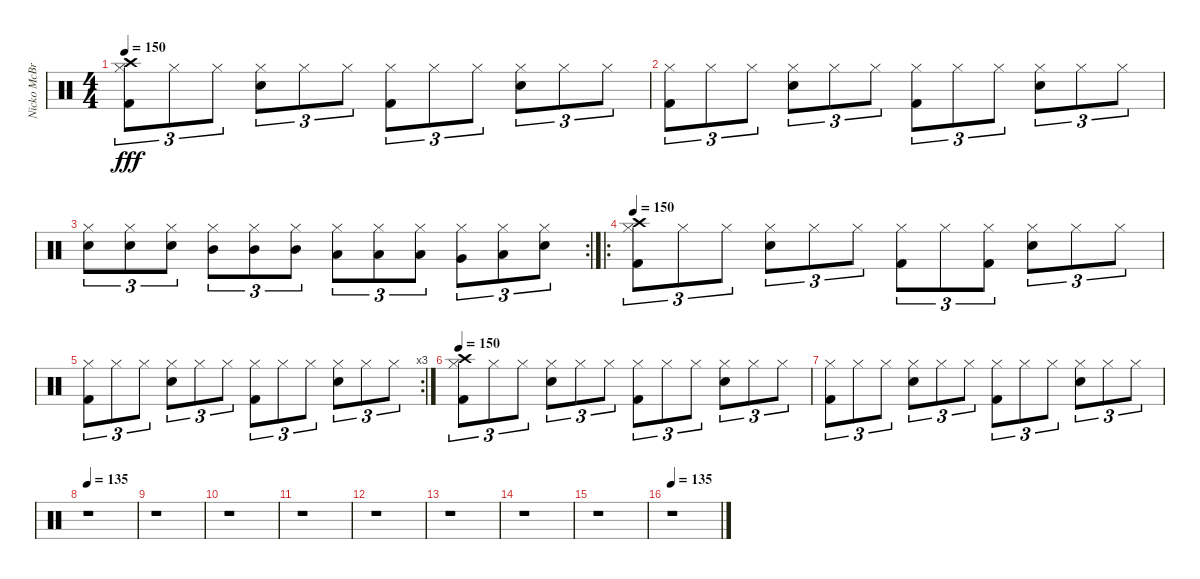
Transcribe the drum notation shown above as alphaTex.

\track ("Nicko McBrain" "Nicko McBr") {instrument percussion}
\staff {score}
\articulation defaults
\ts (4 4)
\tempo 150
\clef neutral
\ks c
("Hi-Hat (closed)" "Kick (hit) 2" "Crash high (hit)").8{tu (3 2) dy fff} "Hi-Hat (closed)".8{tu (3 2)} "Hi-Hat (closed)".8{tu (3 2)} ("Hi-Hat (closed)" "Snare (hit) 2").8{tu (3 2)} "Hi-Hat (closed)".8{tu (3 2)} "Hi-Hat (closed)".8{tu (3 2)} ("Hi-Hat (closed)" "Kick (hit) 2").8{tu (3 2)} "Hi-Hat (closed)".8{tu (3 2)} "Hi-Hat (closed)".8{tu (3 2)} ("Hi-Hat (closed)" "Snare (hit) 2").8{tu (3 2)} "Hi-Hat (closed)".8{tu (3 2)} "Hi-Hat (closed)".8{tu (3 2)} |
("Hi-Hat (closed)" "Kick (hit) 2").8{tu (3 2)} "Hi-Hat (closed)".8{tu (3 2)} "Hi-Hat (closed)".8{tu (3 2)} ("Hi-Hat (closed)" "Snare (hit) 2").8{tu (3 2)} "Hi-Hat (closed)".8{tu (3 2)} "Hi-Hat (closed)".8{tu (3 2)} ("Hi-Hat (closed)" "Kick (hit) 2").8{tu (3 2)} "Hi-Hat (closed)".8{tu (3 2)} "Hi-Hat (closed)".8{tu (3 2)} ("Hi-Hat (closed)" "Snare (hit) 2").8{tu (3 2)} "Hi-Hat (closed)".8{tu (3 2)} "Hi-Hat (closed)".8{tu (3 2)} |
\rc 2
("Snare (hit) 2" "Hi-Hat (closed)").8{tu (3 2)} ("Snare (hit) 2" "Hi-Hat (closed)").8{tu (3 2)} ("Snare (hit) 2" "Hi-Hat (closed)").8{tu (3 2)} ("Mid Tom (hit)" "Hi-Hat (closed)").8{tu (3 2)} ("Mid Tom (hit)" "Hi-Hat (closed)").8{tu (3 2)} ("Mid Tom (hit)" "Hi-Hat (closed)").8{tu (3 2)} ("Low Tom (hit)" "Hi-Hat (closed)").8{tu (3 2)} ("Low Tom (hit)" "Hi-Hat (closed)").8{tu (3 2)} ("Low Tom (hit)" "Hi-Hat (closed)").8{tu (3 2)} ("Very Low Tom (hit)" "Hi-Hat (closed)").8{tu (3 2)} ("Low Floor Tom (hit)" "Hi-Hat (closed)").8{tu (3 2)} ("Electric Snare (hit)" "Hi-Hat (closed)").8{tu (3 2)} |
\ro
\tempo 150
("Hi-Hat (closed)" "Kick (hit) 2" "Crash high (hit)").8{tu (3 2)} "Hi-Hat (closed)".8{tu (3 2)} "Hi-Hat (closed)".8{tu (3 2)} ("Hi-Hat (closed)" "Snare (hit) 2").8{tu (3 2)} "Hi-Hat (closed)".8{tu (3 2)} "Hi-Hat (closed)".8{tu (3 2)} ("Hi-Hat (closed)" "Kick (hit) 2").8{tu (3 2)} "Hi-Hat (closed)".8{tu (3 2)} ("Hi-Hat (closed)" "Kick (hit) 2").8{tu (3 2)} ("Hi-Hat (closed)" "Snare (hit) 2").8{tu (3 2)} "Hi-Hat (closed)".8{tu (3 2)} "Hi-Hat (closed)".8{tu (3 2)} |
\rc 3
("Hi-Hat (closed)" "Kick (hit) 2").8{tu (3 2)} "Hi-Hat (closed)".8{tu (3 2)} "Hi-Hat (closed)".8{tu (3 2)} ("Hi-Hat (closed)" "Snare (hit) 2").8{tu (3 2)} "Hi-Hat (closed)".8{tu (3 2)} "Hi-Hat (closed)".8{tu (3 2)} ("Hi-Hat (closed)" "Kick (hit) 2").8{tu (3 2)} "Hi-Hat (closed)".8{tu (3 2)} "Hi-Hat (closed)".8{tu (3 2)} ("Hi-Hat (closed)" "Snare (hit) 2").8{tu (3 2)} "Hi-Hat (closed)".8{tu (3 2)} "Hi-Hat (closed)".8{tu (3 2)} |
\tempo 150
("Hi-Hat (closed)" "Kick (hit) 2" "Crash high (hit)").8{tu (3 2)} "Hi-Hat (closed)".8{tu (3 2)} "Hi-Hat (closed)".8{tu (3 2)} ("Hi-Hat (closed)" "Snare (hit) 2").8{tu (3 2)} "Hi-Hat (closed)".8{tu (3 2)} "Hi-Hat (closed)".8{tu (3 2)} ("Hi-Hat (closed)" "Kick (hit) 2").8{tu (3 2)} "Hi-Hat (closed)".8{tu (3 2)} "Hi-Hat (closed)".8{tu (3 2)} ("Hi-Hat (closed)" "Snare (hit) 2").8{tu (3 2)} "Hi-Hat (closed)".8{tu (3 2)} "Hi-Hat (closed)".8{tu (3 2)} |
("Hi-Hat (closed)" "Kick (hit) 2").8{tu (3 2)} "Hi-Hat (closed)".8{tu (3 2)} "Hi-Hat (closed)".8{tu (3 2)} ("Hi-Hat (closed)" "Snare (hit) 2").8{tu (3 2)} "Hi-Hat (closed)".8{tu (3 2)} "Hi-Hat (closed)".8{tu (3 2)} ("Hi-Hat (closed)" "Kick (hit) 2").8{tu (3 2)} "Hi-Hat (closed)".8{tu (3 2)} "Hi-Hat (closed)".8{tu (3 2)} ("Hi-Hat (closed)" "Snare (hit) 2").8{tu (3 2)} "Hi-Hat (closed)".8{tu (3 2)} "Hi-Hat (closed)".8{tu (3 2)} |
\tempo 135
r.1 |
r.1 |
r.1 |
r.1 |
r.1 |
r.1 |
r.1 |
r.1 |
\tempo 135
r.1
